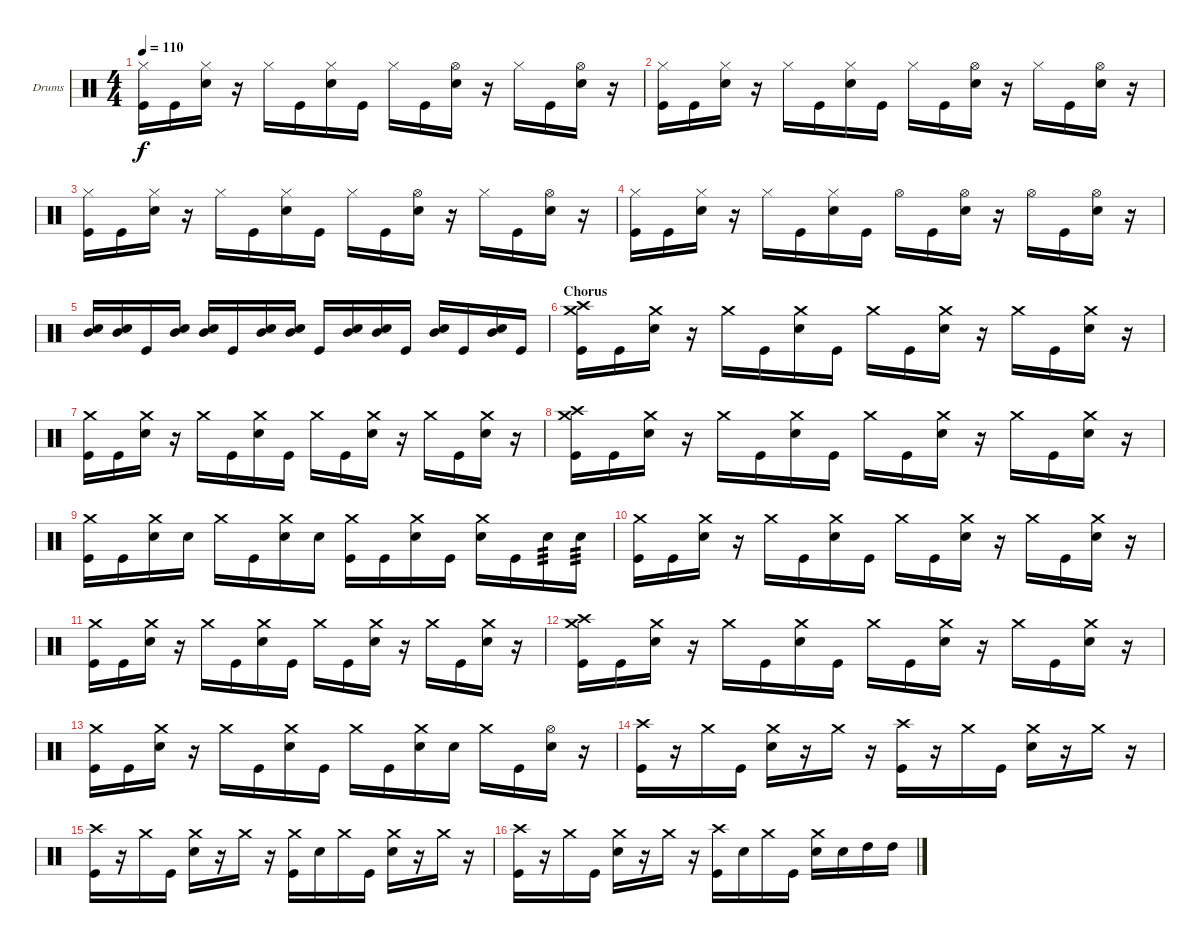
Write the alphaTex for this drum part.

\bracketExtendMode groupsimilarinstruments
\firstSystemTrackNameOrientation horizontal
\otherSystemsTrackNameOrientation horizontal
\track ("Drumkit" "Drums") {instrument percussion}
\staff {score}
\articulation defaults
\ts (4 4)
\tempo 110
\clef neutral
\ks c
("Hi-Hat (closed)" "Kick (hit)").16{dy f} "Kick (hit)".16 ("Hi-Hat (closed)" "Snare (hit) 2").16 r.16 "Hi-Hat (closed)".16 "Kick (hit)".16 ("Hi-Hat (closed)" "Snare (hit) 2").16 "Kick (hit)".16 "Hi-Hat (closed)".16 "Kick (hit)".16 ("Hi-Hat (open)" "Snare (hit) 2").16 r.16 "Hi-Hat (closed)".16 "Kick (hit)".16 ("Hi-Hat (open)" "Snare (hit) 2").16 r.16 |
("Hi-Hat (closed)" "Kick (hit)").16 "Kick (hit)".16 ("Hi-Hat (closed)" "Snare (hit) 2").16 r.16 "Hi-Hat (closed)".16 "Kick (hit)".16 ("Hi-Hat (closed)" "Snare (hit) 2").16 "Kick (hit)".16 "Hi-Hat (closed)".16 "Kick (hit)".16 ("Hi-Hat (open)" "Snare (hit) 2").16 r.16 "Hi-Hat (closed)".16 "Kick (hit)".16 ("Hi-Hat (open)" "Snare (hit) 2").16 r.16 |
("Hi-Hat (closed)" "Kick (hit)").16 "Kick (hit)".16 ("Hi-Hat (closed)" "Snare (hit) 2").16 r.16 "Hi-Hat (closed)".16 "Kick (hit)".16 ("Hi-Hat (closed)" "Snare (hit) 2").16 "Kick (hit)".16 "Hi-Hat (closed)".16 "Kick (hit)".16 ("Hi-Hat (open)" "Snare (hit) 2").16 r.16 "Hi-Hat (closed)".16 "Kick (hit)".16 ("Hi-Hat (open)" "Snare (hit) 2").16 r.16 |
("Hi-Hat (closed)" "Kick (hit)").16 "Kick (hit)".16 ("Hi-Hat (closed)" "Snare (hit) 2").16 r.16 "Hi-Hat (closed)".16 "Kick (hit)".16 ("Hi-Hat (closed)" "Snare (hit) 2").16 "Kick (hit)".16 "Hi-Hat (open)".16 "Kick (hit)".16 ("Hi-Hat (open)" "Snare (hit) 2").16 r.16 "Hi-Hat (open)".16 "Kick (hit)".16 ("Hi-Hat (open)" "Snare (hit) 2").16 r.16 |
("Snare (hit) 2" "Mid Tom (hit)").16 ("Snare (hit) 2" "Mid Tom (hit)").16 "Kick (hit)".16 ("Snare (hit) 2" "Mid Tom (hit)").16 ("Snare (hit) 2" "Mid Tom (hit)").16 "Kick (hit)".16 ("Snare (hit) 2" "Mid Tom (hit)").16 ("Snare (hit) 2" "Mid Tom (hit)").16 "Kick (hit)".16 ("Snare (hit) 2" "Mid Tom (hit)").16 ("Snare (hit) 2" "Mid Tom (hit)").16 "Kick (hit)".16 ("Snare (hit) 2" "Mid Tom (hit)").16 "Kick (hit)".16 ("Snare (hit) 2" "Mid Tom (hit)").16 "Kick (hit)".16 |
\section ("" "Chorus")
("Crash high (hit)" "Crash medium (hit)" "Kick (hit)").16 "Kick (hit)".16 ("Crash medium (hit)" "Snare (hit) 2").16 r.16 "Crash medium (hit)".16 "Kick (hit)".16 ("Crash medium (hit)" "Snare (hit) 2").16 "Kick (hit)".16 "Crash medium (hit)".16 "Kick (hit)".16 ("Crash medium (hit)" "Snare (hit) 2").16 r.16 "Crash medium (hit)".16 "Kick (hit)".16 ("Crash medium (hit)" "Snare (hit) 2").16 r.16 |
("Crash medium (hit)" "Kick (hit)").16 "Kick (hit)".16 ("Crash medium (hit)" "Snare (hit) 2").16 r.16 "Crash medium (hit)".16 "Kick (hit)".16 ("Crash medium (hit)" "Snare (hit) 2").16 "Kick (hit)".16 "Crash medium (hit)".16 "Kick (hit)".16 ("Crash medium (hit)" "Snare (hit) 2").16 r.16 "Crash medium (hit)".16 "Kick (hit)".16 ("Crash medium (hit)" "Snare (hit) 2").16 r.16 |
("Crash high (hit)" "Crash medium (hit)" "Kick (hit)").16 "Kick (hit)".16 ("Crash medium (hit)" "Snare (hit) 2").16 r.16 "Crash medium (hit)".16 "Kick (hit)".16 ("Crash medium (hit)" "Snare (hit) 2").16 "Kick (hit)".16 "Crash medium (hit)".16 "Kick (hit)".16 ("Crash medium (hit)" "Snare (hit) 2").16 r.16 "Crash medium (hit)".16 "Kick (hit)".16 ("Crash medium (hit)" "Snare (hit) 2").16 r.16 |
("Crash medium (hit)" "Kick (hit)").16 "Kick (hit)".16 ("Crash medium (hit)" "Snare (hit) 2").16 "Snare (hit) 2".16 "Crash medium (hit)".16 "Kick (hit)".16 ("Crash medium (hit)" "Snare (hit) 2").16 "Snare (hit) 2".16 ("Crash medium (hit)" "Kick (hit)").16 "Kick (hit)".16 ("Crash medium (hit)" "Snare (hit) 2").16 "Kick (hit)".16 ("Crash medium (hit)" "Snare (hit) 2").16 "Kick (hit)".16 "Snare (hit) 2".16{tp 3} "Snare (hit) 2".16{tp 3} |
("Crash medium (hit)" "Kick (hit)").16 "Kick (hit)".16 ("Crash medium (hit)" "Snare (hit) 2").16 r.16 "Crash medium (hit)".16 "Kick (hit)".16 ("Crash medium (hit)" "Snare (hit) 2").16 "Kick (hit)".16 "Crash medium (hit)".16 "Kick (hit)".16 ("Crash medium (hit)" "Snare (hit) 2").16 r.16 "Crash medium (hit)".16 "Kick (hit)".16 ("Crash medium (hit)" "Snare (hit) 2").16 r.16 |
("Crash medium (hit)" "Kick (hit)").16 "Kick (hit)".16 ("Crash medium (hit)" "Snare (hit) 2").16 r.16 "Crash medium (hit)".16 "Kick (hit)".16 ("Crash medium (hit)" "Snare (hit) 2").16 "Kick (hit)".16 "Crash medium (hit)".16 "Kick (hit)".16 ("Crash medium (hit)" "Snare (hit) 2").16 r.16 "Crash medium (hit)".16 "Kick (hit)".16 ("Crash medium (hit)" "Snare (hit) 2").16 r.16 |
("Crash high (hit)" "Crash medium (hit)" "Kick (hit)").16 "Kick (hit)".16 ("Crash medium (hit)" "Snare (hit) 2").16 r.16 "Crash medium (hit)".16 "Kick (hit)".16 ("Crash medium (hit)" "Snare (hit) 2").16 "Kick (hit)".16 "Crash medium (hit)".16 "Kick (hit)".16 ("Crash medium (hit)" "Snare (hit) 2").16 r.16 "Crash medium (hit)".16 "Kick (hit)".16 ("Crash medium (hit)" "Snare (hit) 2").16 r.16 |
("Crash medium (hit)" "Kick (hit)").16 "Kick (hit)".16 ("Crash medium (hit)" "Snare (hit) 2").16 r.16 "Crash medium (hit)".16 "Kick (hit)".16 ("Crash medium (hit)" "Snare (hit) 2").16 "Kick (hit)".16 "Crash medium (hit)".16 "Kick (hit)".16 ("Crash medium (hit)" "Snare (hit) 2").16 "Snare (hit) 2".16 "Crash medium (hit)".16 "Kick (hit)".16 ("Hi-Hat (open)" "Snare (hit) 2").16 r.16 |
("Crash high (hit)" "Kick (hit)").16 r.16 "Crash medium (hit)".16 "Kick (hit)".16 ("Crash medium (hit)" "Snare (hit) 2").16 r.16 "Crash medium (hit)".16 r.16 ("Crash high (hit)" "Kick (hit)").16 r.16 "Crash medium (hit)".16 "Kick (hit)".16 ("Crash medium (hit)" "Snare (hit) 2").16 r.16 "Crash medium (hit)".16 r.16 |
("Crash high (hit)" "Kick (hit)").16 r.16 "Crash medium (hit)".16 "Kick (hit)".16 ("Crash medium (hit)" "Snare (hit) 2").16 r.16 "Crash medium (hit)".16 r.16 ("Crash medium (hit)" "Kick (hit)").16 "Snare (hit) 2".16 "Crash medium (hit)".16 "Kick (hit)".16 ("Crash medium (hit)" "Snare (hit) 2").16 r.16 "Crash medium (hit)".16 r.16 |
("Crash high (hit)" "Kick (hit)").16 r.16 "Crash medium (hit)".16 "Kick (hit)".16 ("Crash medium (hit)" "Snare (hit) 2").16 r.16 "Crash medium (hit)".16 r.16 ("Crash high (hit)" "Kick (hit)").16 "Snare (hit) 2".16 "Crash medium (hit)".16 "Kick (hit)".16 ("Crash medium (hit)" "Snare (hit) 2").16 "Snare (hit) 2".16 "High Tom (hit)".16 "High Tom (hit)".16
